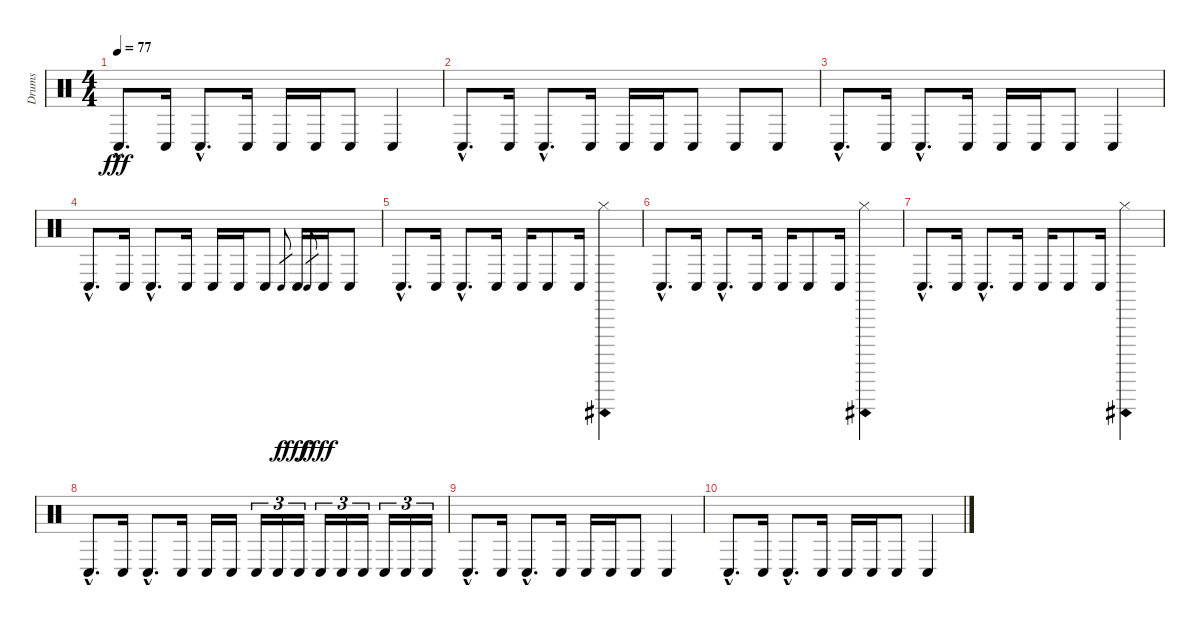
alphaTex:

\track ("Drums" "Drums") {instrument percussion}
\staff {score}
\articulation defaults
\ts (4 4)
\tempo 77
\clef neutral
\ks c "Conga low (hit)"{hac}.8{d dy fff} "Conga low (hit)".16 "Conga low (hit)"{hac}.8{d} "Conga low (hit)".16 "Conga low (hit)".16 "Conga low (hit)".16 "Conga low (hit)".8 "Conga low (hit)".4
|
"Conga low (hit)"{hac}.8{d} "Conga low (hit)".16 "Conga low (hit)"{hac}.8{d} "Conga low (hit)".16 "Conga low (hit)".16 "Conga low (hit)".16 "Conga low (hit)".8 "Conga low (hit)".8 "Conga low (hit)".8 |
"Conga low (hit)"{hac}.8{d} "Conga low (hit)".16 "Conga low (hit)"{hac}.8{d} "Conga low (hit)".16 "Conga low (hit)".16 "Conga low (hit)".16 "Conga low (hit)".8 "Conga low (hit)".4 |
"Conga low (hit)"{hac}.8{d} "Conga low (hit)".16 "Conga low (hit)"{hac}.8{d} "Conga low (hit)".16 "Conga low (hit)".16 "Conga low (hit)".16 "Conga low (hit)".8 "Conga low (hit)".8{gr dy f} "Conga low (hit)".16{dy fff} "Conga low (hit)".8{gr dy f} "Conga low (hit)".16{dy fff} "Conga low (hit)".8 |
"Conga low (hit)"{hac}.8{d} "Conga low (hit)".16 "Conga low (hit)"{hac}.8{d} "Conga low (hit)".16 "Conga low (hit)".16 "Conga low (hit)".8 "Conga low (hit)".16 "Hi-Hat (closed)"{ah 12}.4 |
"Conga low (hit)"{hac}.8{d} "Conga low (hit)".16 "Conga low (hit)"{hac}.8{d} "Conga low (hit)".16 "Conga low (hit)".16 "Conga low (hit)".8 "Conga low (hit)".16 "Hi-Hat (closed)"{ah 12}.4 |
"Conga low (hit)"{hac}.8{d} "Conga low (hit)".16 "Conga low (hit)"{hac}.8{d} "Conga low (hit)".16 "Conga low (hit)".16 "Conga low (hit)".8 "Conga low (hit)".16 "Hi-Hat (closed)"{ah 12}.4 |
"Conga low (hit)"{hac}.8{d} "Conga low (hit)".16 "Conga low (hit)"{hac}.8{d} "Conga low (hit)".16 "Conga low (hit)".16 "Conga low (hit)".16 "Conga low (hit)".16{tu (3 2)} "Conga low (hit)".16{tu (3 2)} "Conga low (hit)".16{tu (3 2)} "Conga low (hit)".16{tu (3 2)} "Conga low (hit)".16{tu (3 2)} "Conga low (hit)".16{tu (3 2)} "Conga low (hit)".16{tu (3 2)} "Conga low (hit)".16{tu (3 2)} "Conga low (hit)".16{tu (3 2)} |
"Conga low (hit)"{hac}.8{d volume 0} "Conga low (hit)".16 "Conga low (hit)"{hac}.8{d} "Conga low (hit)".16 "Conga low (hit)".16 "Conga low (hit)".16 "Conga low (hit)".8 "Conga low (hit)".4 |
"Conga low (hit)"{hac}.8{d} "Conga low (hit)".16 "Conga low (hit)"{hac}.8{d} "Conga low (hit)".16 "Conga low (hit)".16 "Conga low (hit)".16 "Conga low (hit)".8 "Conga low (hit)".4
